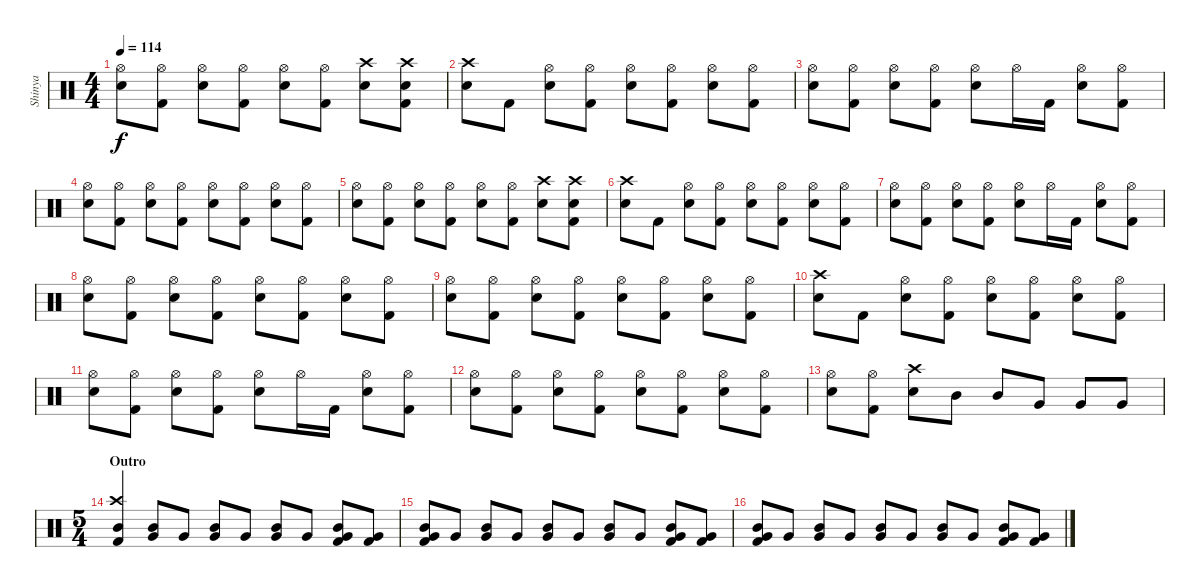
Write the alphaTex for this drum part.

\track ("Shinya" "Shinya") {instrument percussion}
\staff {score}
\articulation defaults
\ts (4 4)
\tempo 114
\clef neutral
\ks c
("Hi-Hat (open)" "Snare (hit) 2").8{dy f} ("Hi-Hat (open)" "Kick (hit) 2").8 ("Hi-Hat (open)" "Snare (hit) 2").8 ("Hi-Hat (open)" "Kick (hit) 2").8 ("Hi-Hat (open)" "Snare (hit) 2").8 ("Hi-Hat (open)" "Kick (hit) 2").8 ("Snare (hit) 2" "Crash high (hit)").8 ("Kick (hit) 2" "Crash high (hit)" "Snare (hit) 2").8 |
("Crash high (hit)" "Snare (hit) 2").8 "Kick (hit) 2".8 ("Hi-Hat (open)" "Snare (hit) 2").8 ("Hi-Hat (open)" "Kick (hit) 2").8 ("Hi-Hat (open)" "Snare (hit) 2").8 ("Hi-Hat (open)" "Kick (hit) 2").8 ("Hi-Hat (open)" "Snare (hit) 2").8 ("Hi-Hat (open)" "Kick (hit) 2").8 |
("Hi-Hat (open)" "Snare (hit) 2").8 ("Hi-Hat (open)" "Kick (hit) 2").8 ("Hi-Hat (open)" "Snare (hit) 2").8 ("Hi-Hat (open)" "Kick (hit) 2").8 ("Hi-Hat (open)" "Snare (hit) 2").8 "Hi-Hat (open)".16 "Kick (hit) 2".16 ("Hi-Hat (open)" "Snare (hit) 2").8 ("Hi-Hat (open)" "Kick (hit) 2").8 |
("Hi-Hat (open)" "Snare (hit) 2").8 ("Hi-Hat (open)" "Kick (hit) 2").8 ("Hi-Hat (open)" "Snare (hit) 2").8 ("Hi-Hat (open)" "Kick (hit) 2").8 ("Hi-Hat (open)" "Snare (hit) 2").8 ("Hi-Hat (open)" "Kick (hit) 2").8 ("Hi-Hat (open)" "Snare (hit) 2").8 ("Hi-Hat (open)" "Kick (hit) 2").8 |
("Hi-Hat (open)" "Snare (hit) 2").8 ("Hi-Hat (open)" "Kick (hit) 2").8 ("Hi-Hat (open)" "Snare (hit) 2").8 ("Hi-Hat (open)" "Kick (hit) 2").8 ("Hi-Hat (open)" "Snare (hit) 2").8 ("Hi-Hat (open)" "Kick (hit) 2").8 ("Snare (hit) 2" "Crash high (hit)").8 ("Kick (hit) 2" "Crash high (hit)" "Snare (hit) 2").8 |
("Crash high (hit)" "Snare (hit) 2").8 "Kick (hit) 2".8 ("Hi-Hat (open)" "Snare (hit) 2").8 ("Hi-Hat (open)" "Kick (hit) 2").8 ("Hi-Hat (open)" "Snare (hit) 2").8 ("Hi-Hat (open)" "Kick (hit) 2").8 ("Hi-Hat (open)" "Snare (hit) 2").8 ("Hi-Hat (open)" "Kick (hit) 2").8 |
("Hi-Hat (open)" "Snare (hit) 2").8 ("Hi-Hat (open)" "Kick (hit) 2").8 ("Hi-Hat (open)" "Snare (hit) 2").8 ("Hi-Hat (open)" "Kick (hit) 2").8 ("Hi-Hat (open)" "Snare (hit) 2").8 "Hi-Hat (open)".16 "Kick (hit) 2".16 ("Hi-Hat (open)" "Snare (hit) 2").8 ("Hi-Hat (open)" "Kick (hit) 2").8 |
("Hi-Hat (open)" "Snare (hit) 2").8 ("Hi-Hat (open)" "Kick (hit) 2").8 ("Hi-Hat (open)" "Snare (hit) 2").8 ("Hi-Hat (open)" "Kick (hit) 2").8 ("Hi-Hat (open)" "Snare (hit) 2").8 ("Hi-Hat (open)" "Kick (hit) 2").8 ("Hi-Hat (open)" "Snare (hit) 2").8 ("Hi-Hat (open)" "Kick (hit) 2").8 |
("Hi-Hat (open)" "Snare (hit) 2").8 ("Hi-Hat (open)" "Kick (hit) 2").8 ("Hi-Hat (open)" "Snare (hit) 2").8 ("Hi-Hat (open)" "Kick (hit) 2").8 ("Hi-Hat (open)" "Snare (hit) 2").8 ("Hi-Hat (open)" "Kick (hit) 2").8 ("Hi-Hat (open)" "Snare (hit) 2").8 ("Hi-Hat (open)" "Kick (hit) 2").8 |
("Crash high (hit)" "Snare (hit) 2").8 "Kick (hit) 2".8 ("Hi-Hat (open)" "Snare (hit) 2").8 ("Hi-Hat (open)" "Kick (hit) 2").8 ("Hi-Hat (open)" "Snare (hit) 2").8 ("Hi-Hat (open)" "Kick (hit) 2").8 ("Hi-Hat (open)" "Snare (hit) 2").8 ("Hi-Hat (open)" "Kick (hit) 2").8 |
("Hi-Hat (open)" "Snare (hit) 2").8 ("Hi-Hat (open)" "Kick (hit) 2").8 ("Hi-Hat (open)" "Snare (hit) 2").8 ("Hi-Hat (open)" "Kick (hit) 2").8 ("Hi-Hat (open)" "Snare (hit) 2").8 "Hi-Hat (open)".16 "Kick (hit) 2".16 ("Hi-Hat (open)" "Snare (hit) 2").8 ("Hi-Hat (open)" "Kick (hit) 2").8 |
("Hi-Hat (open)" "Snare (hit) 2").8 ("Hi-Hat (open)" "Kick (hit) 2").8 ("Hi-Hat (open)" "Snare (hit) 2").8 ("Hi-Hat (open)" "Kick (hit) 2").8 ("Hi-Hat (open)" "Snare (hit) 2").8 ("Hi-Hat (open)" "Kick (hit) 2").8 ("Hi-Hat (open)" "Snare (hit) 2").8 ("Hi-Hat (open)" "Kick (hit) 2").8 |
("Hi-Hat (open)" "Snare (hit) 2").8 ("Hi-Hat (open)" "Kick (hit) 2").8 ("Crash high (hit)" "Snare (hit) 2").8 "Mid Tom (hit)".8 "Mid Tom (hit)".8 "Very Low Tom (hit)".8 "Very Low Tom (hit)".8 "Very Low Tom (hit)".8 |
\ts (5 4)
\section ("" "Outro")
("Crash high (hit)" "Mid Tom (hit)" "Kick (hit) 2").4 ("Mid Tom (hit)" "Very Low Tom (hit)").8 "Very Low Tom (hit)".8 ("Mid Tom (hit)" "Very Low Tom (hit)").8 "Very Low Tom (hit)".8 ("Mid Tom (hit)" "Very Low Tom (hit)").8 "Very Low Tom (hit)".8 ("Mid Tom (hit)" "Very Low Tom (hit)" "Kick (hit) 2").8 ("Very Low Tom (hit)" "Kick (hit) 2").8 |
("Mid Tom (hit)" "Very Low Tom (hit)" "Kick (hit) 2").8 "Very Low Tom (hit)".8 ("Mid Tom (hit)" "Very Low Tom (hit)").8 "Very Low Tom (hit)".8 ("Mid Tom (hit)" "Very Low Tom (hit)").8 "Very Low Tom (hit)".8 ("Mid Tom (hit)" "Very Low Tom (hit)").8 "Very Low Tom (hit)".8 ("Mid Tom (hit)" "Very Low Tom (hit)" "Kick (hit) 2").8 ("Very Low Tom (hit)" "Kick (hit) 2").8 |
("Mid Tom (hit)" "Very Low Tom (hit)" "Kick (hit) 2").8 "Very Low Tom (hit)".8 ("Mid Tom (hit)" "Very Low Tom (hit)").8 "Very Low Tom (hit)".8 ("Mid Tom (hit)" "Very Low Tom (hit)").8 "Very Low Tom (hit)".8 ("Mid Tom (hit)" "Very Low Tom (hit)").8 "Very Low Tom (hit)".8 ("Mid Tom (hit)" "Very Low Tom (hit)" "Kick (hit) 2").8 ("Very Low Tom (hit)" "Kick (hit) 2").8
